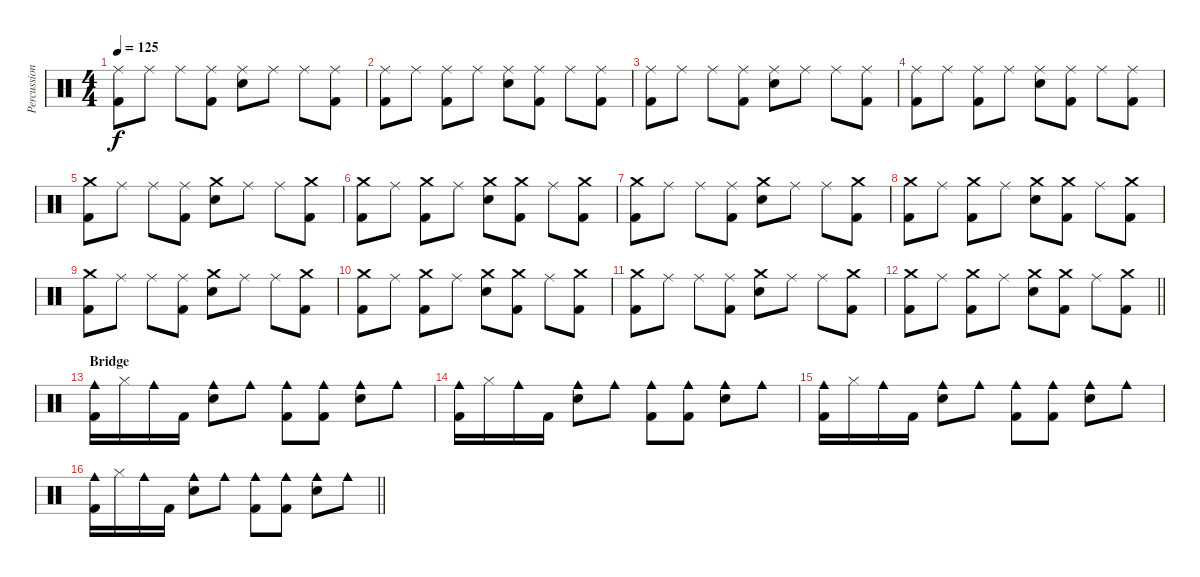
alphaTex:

\track ("Percussion" "Percussion") {instrument percussion}
\staff {score}
\articulation defaults
\ts (4 4)
\tempo 125
\clef neutral
\ks c
("Ride (middle)" "Kick (hit) 2").8{dy f} "Ride (middle)".8 "Ride (middle)".8 ("Ride (middle)" "Kick (hit) 2").8 ("Ride (middle)" "Electric Snare (hit)").8 "Ride (middle)".8 "Ride (middle)".8 ("Ride (middle)" "Kick (hit) 2").8 |
("Ride (middle)" "Kick (hit) 2").8 "Ride (middle)".8 ("Ride (middle)" "Kick (hit) 2").8 "Ride (middle)".8 ("Ride (middle)" "Electric Snare (hit)").8 ("Ride (middle)" "Kick (hit) 2").8 "Ride (middle)".8 ("Ride (middle)" "Kick (hit) 2").8 |
("Ride (middle)" "Kick (hit) 2").8 "Ride (middle)".8 "Ride (middle)".8 ("Ride (middle)" "Kick (hit) 2").8 ("Ride (middle)" "Electric Snare (hit)").8 "Ride (middle)".8 "Ride (middle)".8 ("Ride (middle)" "Kick (hit) 2").8 |
("Ride (middle)" "Kick (hit) 2").8 "Ride (middle)".8 ("Ride (middle)" "Kick (hit) 2").8 "Ride (middle)".8 ("Ride (middle)" "Electric Snare (hit)").8 ("Ride (middle)" "Kick (hit) 2").8 "Ride (middle)".8 ("Ride (middle)" "Kick (hit) 2").8 |
("Crash medium (hit)" "Kick (hit) 2").8 "Ride (middle)".8 "Ride (middle)".8 ("Ride (middle)" "Kick (hit) 2").8 ("Crash medium (hit)" "Electric Snare (hit)").8 "Ride (middle)".8 "Ride (middle)".8 ("Crash medium (hit)" "Kick (hit) 2").8 |
("Crash medium (hit)" "Kick (hit) 2").8 "Ride (middle)".8 ("Crash medium (hit)" "Kick (hit) 2").8 "Ride (middle)".8 ("Crash medium (hit)" "Electric Snare (hit)").8 ("Crash medium (hit)" "Kick (hit) 2").8 "Ride (middle)".8 ("Crash medium (hit)" "Kick (hit) 2").8 |
("Crash medium (hit)" "Kick (hit) 2").8 "Ride (middle)".8 "Ride (middle)".8 ("Ride (middle)" "Kick (hit) 2").8 ("Crash medium (hit)" "Electric Snare (hit)").8 "Ride (middle)".8 "Ride (middle)".8 ("Crash medium (hit)" "Kick (hit) 2").8 |
("Crash medium (hit)" "Kick (hit) 2").8 "Ride (middle)".8 ("Crash medium (hit)" "Kick (hit) 2").8 "Ride (middle)".8 ("Crash medium (hit)" "Electric Snare (hit)").8 ("Crash medium (hit)" "Kick (hit) 2").8 "Ride (middle)".8 ("Crash medium (hit)" "Kick (hit) 2").8 |
("Crash medium (hit)" "Kick (hit) 2").8 "Ride (middle)".8 "Ride (middle)".8 ("Ride (middle)" "Kick (hit) 2").8 ("Crash medium (hit)" "Electric Snare (hit)").8 "Ride (middle)".8 "Ride (middle)".8 ("Crash medium (hit)" "Kick (hit) 2").8 |
("Crash medium (hit)" "Kick (hit) 2").8 "Ride (middle)".8 ("Crash medium (hit)" "Kick (hit) 2").8 "Ride (middle)".8 ("Crash medium (hit)" "Electric Snare (hit)").8 ("Crash medium (hit)" "Kick (hit) 2").8 "Ride (middle)".8 ("Crash medium (hit)" "Kick (hit) 2").8 |
("Crash medium (hit)" "Kick (hit) 2").8 "Ride (middle)".8 "Ride (middle)".8 ("Ride (middle)" "Kick (hit) 2").8 ("Crash medium (hit)" "Electric Snare (hit)").8 "Ride (middle)".8 "Ride (middle)".8 ("Crash medium (hit)" "Kick (hit) 2").8 |
\barLineRight lightlight
("Crash medium (hit)" "Kick (hit) 2").8 "Ride (middle)".8 ("Crash medium (hit)" "Kick (hit) 2").8 "Ride (middle)".8 ("Crash medium (hit)" "Electric Snare (hit)").8 ("Crash medium (hit)" "Kick (hit) 2").8 "Ride (middle)".8 ("Crash medium (hit)" "Kick (hit) 2").8 |
\section ("" "Bridge")
("Cowbell medium (hit)" "Kick (hit) 2").16 "Hi-Hat (closed)".16 "Cowbell medium (hit)".16 "Kick (hit) 2".16 ("Cowbell medium (hit)" "Electric Snare (hit)").8 "Cowbell medium (hit)".8 ("Cowbell medium (hit)" "Kick (hit) 2").8 ("Cowbell medium (hit)" "Kick (hit) 2").8 ("Cowbell medium (hit)" "Electric Snare (hit)").8 "Cowbell medium (hit)".8 |
("Cowbell medium (hit)" "Kick (hit) 2").16 "Hi-Hat (closed)".16 "Cowbell medium (hit)".16 "Kick (hit) 2".16 ("Cowbell medium (hit)" "Electric Snare (hit)").8 "Cowbell medium (hit)".8 ("Cowbell medium (hit)" "Kick (hit) 2").8 ("Cowbell medium (hit)" "Kick (hit) 2").8 ("Cowbell medium (hit)" "Electric Snare (hit)").8 "Cowbell medium (hit)".8 |
("Cowbell medium (hit)" "Kick (hit) 2").16 "Hi-Hat (closed)".16 "Cowbell medium (hit)".16 "Kick (hit) 2".16 ("Cowbell medium (hit)" "Electric Snare (hit)").8 "Cowbell medium (hit)".8 ("Cowbell medium (hit)" "Kick (hit) 2").8 ("Cowbell medium (hit)" "Kick (hit) 2").8 ("Cowbell medium (hit)" "Electric Snare (hit)").8 "Cowbell medium (hit)".8 |
\barLineRight lightlight
("Cowbell medium (hit)" "Kick (hit) 2").16 "Hi-Hat (closed)".16 "Cowbell medium (hit)".16 "Kick (hit) 2".16 ("Cowbell medium (hit)" "Electric Snare (hit)").8 "Cowbell medium (hit)".8 ("Cowbell medium (hit)" "Kick (hit) 2").8 ("Cowbell medium (hit)" "Kick (hit) 2").8 ("Cowbell medium (hit)" "Electric Snare (hit)").8 "Cowbell medium (hit)".8
